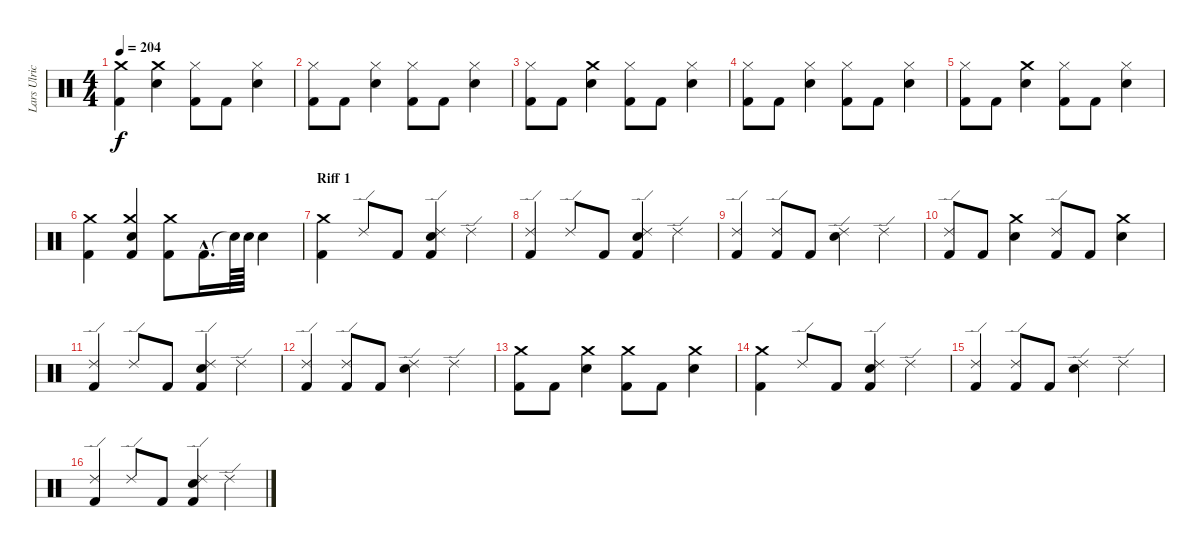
\track ("Lars Ulrich (Drums)" "Lars Ulric") {instrument percussion}
\staff {score}
\articulation defaults
\ts (4 4)
\tempo 204
\clef neutral
\ks c
("Kick (hit) 2" "Crash medium (hit)").4{dy f} ("Snare (hit) 2" "Crash medium (hit)").4 ("Hi-Hat (closed)" "Kick (hit) 2").8 "Kick (hit) 2".8 ("Hi-Hat (closed)" "Snare (hit) 2").4 |
("Kick (hit) 2" "Hi-Hat (closed)").8 "Kick (hit) 2".8 ("Snare (hit) 2" "Hi-Hat (closed)").4 ("Kick (hit) 2" "Hi-Hat (closed)").8 "Kick (hit) 2".8 ("Snare (hit) 2" "Hi-Hat (closed)").4 |
("Kick (hit) 2" "Hi-Hat (closed)").8 "Kick (hit) 2".8 ("Crash medium (hit)" "Snare (hit) 2").4 ("Kick (hit) 2" "Hi-Hat (closed)").8 "Kick (hit) 2".8 ("Snare (hit) 2" "Hi-Hat (closed)").4 |
("Kick (hit) 2" "Hi-Hat (closed)").8 "Kick (hit) 2".8 ("Snare (hit) 2" "Hi-Hat (closed)").4 ("Kick (hit) 2" "Hi-Hat (closed)").8 "Kick (hit) 2".8 ("Snare (hit) 2" "Hi-Hat (closed)").4 |
("Kick (hit) 2" "Hi-Hat (closed)").8 "Kick (hit) 2".8 ("Crash medium (hit)" "Snare (hit) 2").4 ("Kick (hit) 2" "Hi-Hat (closed)").8 "Kick (hit) 2".8 ("Snare (hit) 2" "Hi-Hat (closed)").4 |
("Kick (hit) 2" "Crash medium (hit)").4 ("Kick (hit) 2" "Snare (hit) 2" "Crash medium (hit)").4 ("Kick (hit) 2" "Crash medium (hit)").8 "Kick (hit) 2"{hac}.16{d} "Snare (hit)"{t}.64 "Snare (hit) 2".64 "Snare (hit) 2".4 |
\section ("" "Riff 1")
("Kick (hit) 2" "Crash medium (hit)").4 "Ride (edge) 2".8 "Kick (hit) 2".8 ("Kick (hit) 2" "Snare (hit) 2" "Ride (edge) 2").4 "Ride (edge) 2".4 |
("Kick (hit) 2" "Ride (edge) 2").4 "Ride (edge) 2".8 "Kick (hit) 2".8 ("Kick (hit) 2" "Snare (hit) 2" "Ride (edge) 2").4 "Ride (edge) 2".4 |
("Kick (hit) 2" "Ride (edge) 2").4 ("Kick (hit) 2" "Ride (edge) 2").8 "Kick (hit) 2".8 ("Ride (edge) 2" "Snare (hit) 2").4 "Ride (edge) 2".4 |
("Ride (edge) 2" "Kick (hit) 2").8 "Kick (hit) 2".8 ("Snare (hit) 2" "Crash medium (hit)").4 ("Ride (edge) 2" "Kick (hit) 2").8 "Kick (hit) 2".8 ("Snare (hit) 2" "Crash medium (hit)").4 |
("Ride (edge) 2" "Kick (hit) 2").4 "Ride (edge) 2".8 "Kick (hit) 2".8 ("Ride (edge) 2" "Snare (hit) 2" "Kick (hit) 2").4 "Ride (edge) 2".4 |
("Kick (hit) 2" "Ride (edge) 2").4 ("Ride (edge) 2" "Kick (hit) 2").8 "Kick (hit) 2".8 ("Snare (hit) 2" "Ride (edge) 2").4 "Ride (edge) 2".4 |
("Kick (hit) 2" "Crash medium (hit)").8 "Kick (hit) 2".8 ("Snare (hit) 2" "Crash medium (hit)").4 ("Kick (hit) 2" "Crash medium (hit)").8 "Kick (hit) 2".8 ("Snare (hit) 2" "Crash medium (hit)").4 |
("Kick (hit) 2" "Crash medium (hit)").4 "Ride (edge) 2".8 "Kick (hit) 2".8 ("Kick (hit) 2" "Snare (hit) 2" "Ride (edge) 2").4 "Ride (edge) 2".4 |
("Kick (hit) 2" "Ride (edge) 2").4 ("Ride (edge) 2" "Kick (hit) 2").8 "Kick (hit) 2".8 ("Snare (hit) 2" "Ride (edge) 2").4 "Ride (edge) 2".4 |
("Kick (hit) 2" "Ride (edge) 2").4 "Ride (edge) 2".8 "Kick (hit) 2".8 ("Ride (edge) 2" "Snare (hit) 2" "Kick (hit) 2").4 "Ride (edge) 2".4
